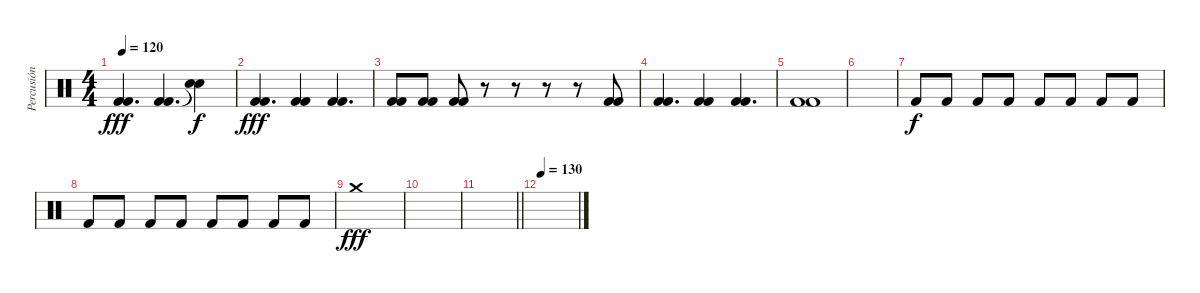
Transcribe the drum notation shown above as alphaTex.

\track ("Percusión" "Percusión") {instrument percussion}
\staff {score}
\articulation defaults
\ts (4 4)
\tempo 120
\clef neutral
\ks c
("Kick (hit) 2" "Kick (hit) 2").4{d dy fff} ("Kick (hit) 2" "Kick (hit) 2").4{d} ("Snare (hit)"{t} "Snare (hit)"{t}).4{dy f} |
("Kick (hit) 2" "Kick (hit) 2").4{d dy fff} ("Kick (hit) 2" "Kick (hit) 2").4 ("Kick (hit) 2" "Kick (hit) 2").4{d} |
("Kick (hit) 2" "Kick (hit) 2").8 ("Kick (hit) 2" "Kick (hit) 2").8 ("Kick (hit) 2" "Kick (hit) 2").8 r.8 r.8 r.8 r.8 ("Kick (hit) 2" "Kick (hit) 2").8 |
("Kick (hit) 2" "Kick (hit) 2").4{d} ("Kick (hit) 2" "Kick (hit) 2").4 ("Kick (hit) 2" "Kick (hit) 2").4{d} |
("Kick (hit) 2" "Kick (hit) 2").1 |
|
"Kick (hit) 2".8{dy f volume 6} "Kick (hit) 2".8{volume 15} "Kick (hit) 2".8 "Kick (hit) 2".8 "Kick (hit) 2".8 "Kick (hit) 2".8 "Kick (hit) 2".8 "Kick (hit) 2".8 |
"Kick (hit) 2".8 "Kick (hit) 2".8 "Kick (hit) 2".8 "Kick (hit) 2".8 "Kick (hit) 2".8 "Kick (hit) 2".8 "Kick (hit) 2".8 "Kick (hit) 2".8 |
"Crash medium (hit)".1{dy fff} |
|
\barLineRight lightlight
|
\tempo 130
